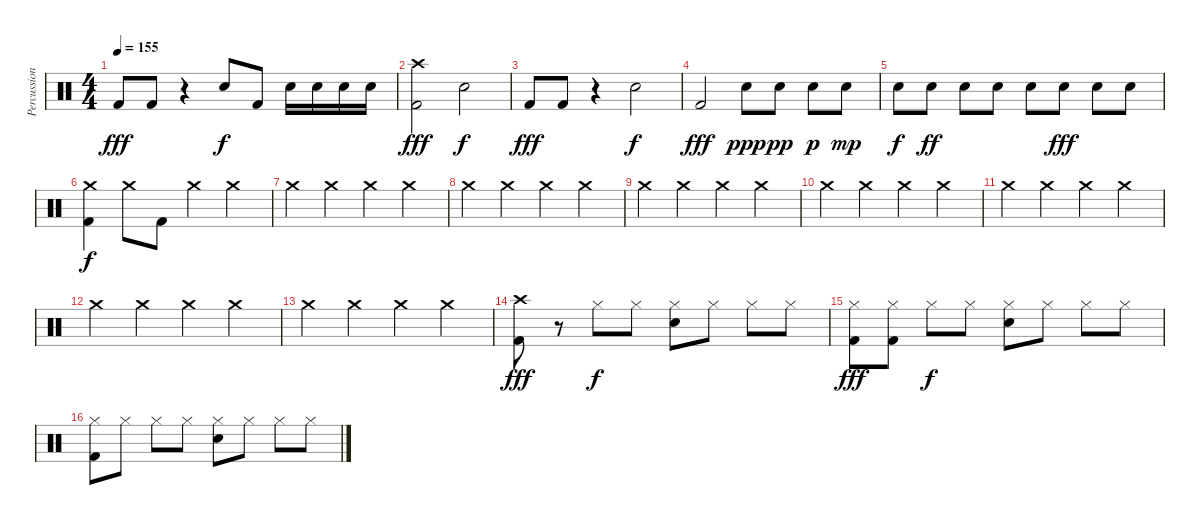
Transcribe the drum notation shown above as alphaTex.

\track ("Percussion" "Percussion") {instrument percussion}
\staff {score}
\articulation defaults
\ts (4 4)
\tempo 155
\clef neutral
\ks c "Kick (hit) 2".8{dy fff} "Kick (hit) 2".8
r.4 "Snare (hit) 2".8{dy f} "Kick (hit) 2".8 "Snare (hit) 2".16 "Snare (hit) 2".16 "Snare (hit) 2".16 "Snare (hit) 2".16 |
("Crash high (hit)" "Kick (hit) 2").2{dy fff} "Snare (hit) 2".2{dy f} |
"Kick (hit) 2".8{dy fff} "Kick (hit) 2".8 r.4 "Snare (hit) 2".2{dy f} |
"Kick (hit) 2".2{dy fff} "Snare (hit) 2".8{dy ppp} "Snare (hit) 2".8{dy pp} "Snare (hit) 2".8{dy p} "Snare (hit) 2".8{dy mp} |
"Snare (hit) 2".8{dy f} "Snare (hit) 2".8{dy ff} "Snare (hit) 2".8 "Snare (hit) 2".8 "Snare (hit) 2".8 "Snare (hit) 2".8{dy fff} "Snare (hit) 2".8 "Snare (hit) 2".8 |
("Crash medium (hit)" "Kick (hit) 2").4{dy f} "Crash medium (hit)".8 "Kick (hit) 2".8 "Crash medium (hit)".4 "Crash medium (hit)".4 |
"Crash medium (hit)".4 "Crash medium (hit)".4 "Crash medium (hit)".4 "Crash medium (hit)".4 |
"Crash medium (hit)".4 "Crash medium (hit)".4 "Crash medium (hit)".4 "Crash medium (hit)".4 |
"Crash medium (hit)".4 "Crash medium (hit)".4 "Crash medium (hit)".4 "Crash medium (hit)".4 |
"Crash medium (hit)".4 "Crash medium (hit)".4 "Crash medium (hit)".4 "Crash medium (hit)".4 |
"Crash medium (hit)".4 "Crash medium (hit)".4 "Crash medium (hit)".4 "Crash medium (hit)".4 |
"Crash medium (hit)".4 "Crash medium (hit)".4 "Crash medium (hit)".4 "Crash medium (hit)".4 |
"Crash medium (hit)".4 "Crash medium (hit)".4 "Crash medium (hit)".4 "Crash medium (hit)".4 |
("Crash high (hit)" "Kick (hit) 2").8{dy fff} r.8 "Hi-Hat (closed)".8{dy f} "Hi-Hat (closed)".8 ("Hi-Hat (closed)" "Snare (hit) 2").8 "Hi-Hat (closed)".8 "Hi-Hat (closed)".8 "Hi-Hat (closed)".8 |
("Hi-Hat (closed)" "Kick (hit) 2").8{dy fff} ("Hi-Hat (closed)" "Kick (hit) 2").8 "Hi-Hat (closed)".8{dy f} "Hi-Hat (closed)".8 ("Hi-Hat (closed)" "Snare (hit) 2").8 "Hi-Hat (closed)".8 "Hi-Hat (closed)".8 "Hi-Hat (closed)".8 |
("Hi-Hat (closed)" "Kick (hit) 2").8 "Hi-Hat (closed)".8 "Hi-Hat (closed)".8 "Hi-Hat (closed)".8 ("Hi-Hat (closed)" "Snare (hit) 2").8 "Hi-Hat (closed)".8 "Hi-Hat (closed)".8 "Hi-Hat (closed)".8
